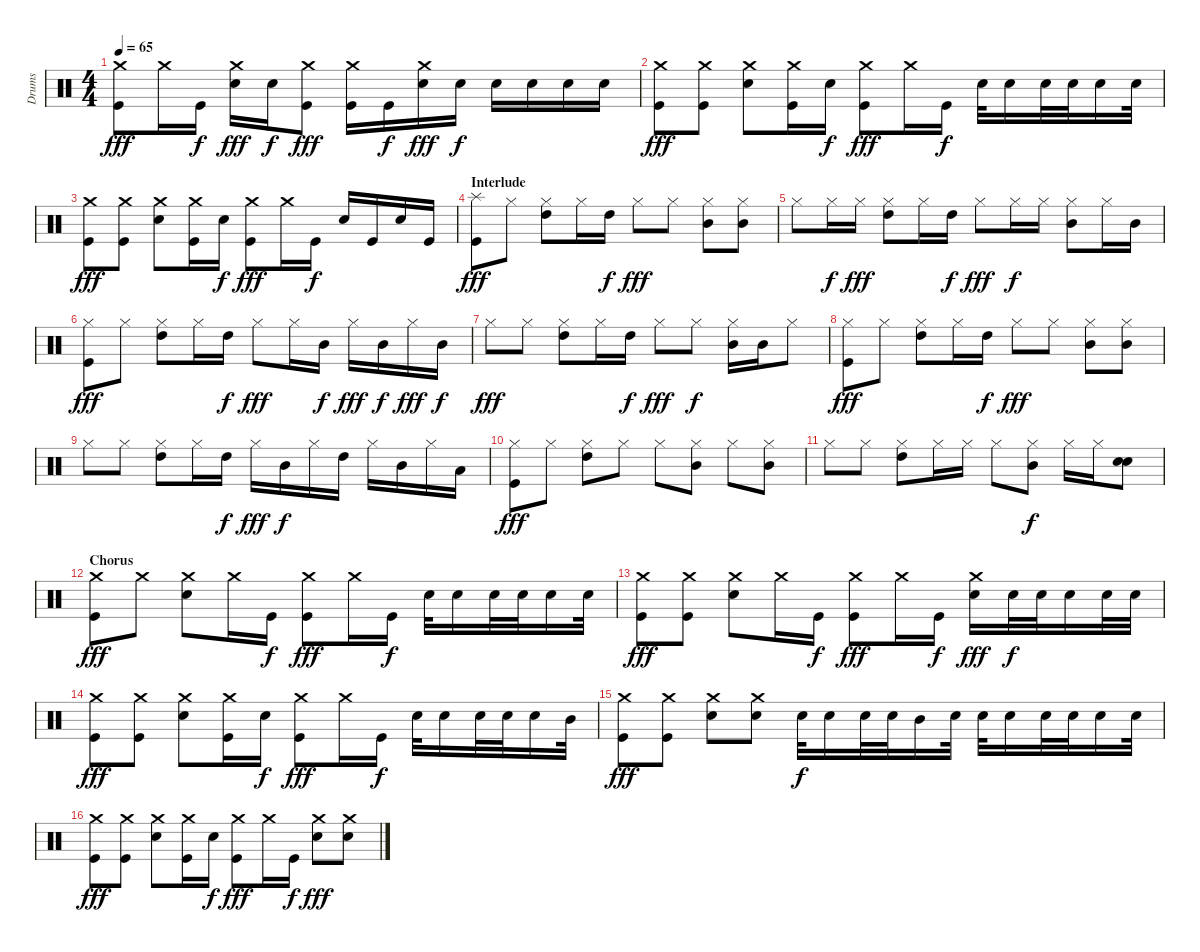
\track ("Drums" "Drums") {instrument percussion}
\staff {score}
\articulation defaults
\ts (4 4)
\tempo 65
\clef neutral
\ks c
("Crash medium (hit)" "Kick (hit)").8{dy fff} "Crash medium (hit)".16 "Kick (hit)".16{dy f} ("Crash medium (hit)" "Electric Snare (hit)").16{dy fff} "Electric Snare (hit)".16{dy f} ("Crash medium (hit)" "Kick (hit)").8{dy fff} ("Crash medium (hit)" "Kick (hit)").16 "Kick (hit)".16{dy f} ("Crash medium (hit)" "Electric Snare (hit)").16{dy fff} "Electric Snare (hit)".16{dy f} "Electric Snare (hit)".16 "Electric Snare (hit)".16 "Electric Snare (hit)".16 "Electric Snare (hit)".16 |
("Crash medium (hit)" "Kick (hit)").8{dy fff} ("Crash medium (hit)" "Kick (hit)").8 ("Crash medium (hit)" "Electric Snare (hit)").8 ("Crash medium (hit)" "Kick (hit)").16 "Electric Snare (hit)".16{dy f} ("Crash medium (hit)" "Kick (hit)").8{dy fff} "Crash medium (hit)".16 "Kick (hit)".16{dy f} "Electric Snare (hit)".32 "Electric Snare (hit)".16 "Electric Snare (hit)".32 "Electric Snare (hit)".32 "Electric Snare (hit)".16 "Electric Snare (hit)".32 |
("Crash medium (hit)" "Kick (hit)").8{dy fff} ("Crash medium (hit)" "Kick (hit)").8 ("Crash medium (hit)" "Electric Snare (hit)").8 ("Crash medium (hit)" "Kick (hit)").16 "Electric Snare (hit)".16{dy f} ("Crash medium (hit)" "Kick (hit)").8{dy fff} "Crash medium (hit)".16 "Kick (hit)".16{dy f} "Electric Snare (hit)".16 "Kick (hit)".16 "Electric Snare (hit)".16 "Kick (hit)".16 |
\section ("" "Interlude")
("Splash (hit)" "Kick (hit)").8{dy fff} "Hi-Hat (closed)".8 ("Hi-Hat (closed)" "High Tom (hit)").8 "Hi-Hat (closed)".16 "High Tom (hit)".16{dy f} "Hi-Hat (closed)".8{dy fff} "Hi-Hat (closed)".8 ("Hi-Hat (closed)" "Mid Tom (hit)").8 ("Hi-Hat (closed)" "Mid Tom (hit)").8 |
"Hi-Hat (closed)".8 "Hi-Hat (closed)".16{dy f} "Hi-Hat (closed)".16{dy fff} ("Hi-Hat (closed)" "High Tom (hit)").8 "Hi-Hat (closed)".16 "High Tom (hit)".16{dy f} "Hi-Hat (closed)".8{dy fff} "Hi-Hat (closed)".16{dy f} "Hi-Hat (closed)".16 ("Hi-Hat (closed)" "Mid Tom (hit)").8 "Hi-Hat (closed)".16 "Mid Tom (hit)".16 |
("Hi-Hat (closed)" "Kick (hit)").8{dy fff} "Hi-Hat (closed)".8 ("Hi-Hat (closed)" "High Tom (hit)").8 "Hi-Hat (closed)".16 "High Tom (hit)".16{dy f} "Hi-Hat (closed)".8{dy fff} "Hi-Hat (closed)".16 "Mid Tom (hit)".16{dy f} "Hi-Hat (closed)".16{dy fff} "Mid Tom (hit)".16{dy f} "Hi-Hat (closed)".16{dy fff} "Mid Tom (hit)".16{dy f} |
"Hi-Hat (closed)".8{dy fff} "Hi-Hat (closed)".8 ("Hi-Hat (closed)" "High Tom (hit)").8 "Hi-Hat (closed)".16 "High Tom (hit)".16{dy f} "Hi-Hat (closed)".8{dy fff} "Hi-Hat (closed)".8{dy f} ("Hi-Hat (closed)" "Mid Tom (hit)").16 "Mid Tom (hit)".16 "Hi-Hat (closed)".8 |
("Hi-Hat (closed)" "Kick (hit)").8{dy fff} "Hi-Hat (closed)".8 ("Hi-Hat (closed)" "High Tom (hit)").8 "Hi-Hat (closed)".16 "High Tom (hit)".16{dy f} "Hi-Hat (closed)".8{dy fff} "Hi-Hat (closed)".8 ("Hi-Hat (closed)" "Mid Tom (hit)").8 ("Hi-Hat (closed)" "Mid Tom (hit)").8 |
"Hi-Hat (closed)".8 "Hi-Hat (closed)".8 ("Hi-Hat (closed)" "High Tom (hit)").8 "Hi-Hat (closed)".16 "High Tom (hit)".16{dy f} "Hi-Hat (closed)".16{dy fff} "Mid Tom (hit)".16{dy f} "Hi-Hat (closed)".16 "High Tom (hit)".16 "Hi-Hat (closed)".16 "Mid Tom (hit)".16 "Hi-Hat (closed)".16 "Low Tom (hit)".16 |
("Hi-Hat (closed)" "Kick (hit)").8{dy fff} "Hi-Hat (closed)".8 ("Hi-Hat (closed)" "High Tom (hit)").8 "Hi-Hat (closed)".8 "Hi-Hat (closed)".8 ("Hi-Hat (closed)" "Mid Tom (hit)").8 "Hi-Hat (closed)".8 ("Hi-Hat (closed)" "Mid Tom (hit)").8 |
"Hi-Hat (closed)".8 "Hi-Hat (closed)".8 ("Hi-Hat (closed)" "High Tom (hit)").8 "Hi-Hat (closed)".16 "Hi-Hat (closed)".16 "Hi-Hat (closed)".8 ("Hi-Hat (closed)" "Mid Tom (hit)").8{dy f} "Hi-Hat (closed)".16 "Hi-Hat (closed)".16 ("Electric Snare (hit)" "Electric Snare (hit)").8 |
\section ("" "Chorus")
("Crash medium (hit)" "Kick (hit)").8{dy fff} "Crash medium (hit)".8 ("Crash medium (hit)" "Electric Snare (hit)").8 "Crash medium (hit)".16 "Kick (hit)".16{dy f} ("Crash medium (hit)" "Kick (hit)").8{dy fff} "Crash medium (hit)".16 "Kick (hit)".16{dy f} "Electric Snare (hit)".32 "Electric Snare (hit)".16 "Electric Snare (hit)".32 "Electric Snare (hit)".32 "Electric Snare (hit)".16 "Electric Snare (hit)".32 |
("Crash medium (hit)" "Kick (hit)").8{dy fff} ("Crash medium (hit)" "Kick (hit)").8 ("Crash medium (hit)" "Electric Snare (hit)").8 "Crash medium (hit)".16 "Kick (hit)".16{dy f} ("Crash medium (hit)" "Kick (hit)").8{dy fff} "Crash medium (hit)".16 "Kick (hit)".16{dy f} ("Crash medium (hit)" "Electric Snare (hit)").16{dy fff} "Electric Snare (hit)".32{dy f} "Electric Snare (hit)".32 "Electric Snare (hit)".16 "Electric Snare (hit)".32 "Electric Snare (hit)".32 |
("Crash medium (hit)" "Kick (hit)").8{dy fff} ("Crash medium (hit)" "Kick (hit)").8 ("Crash medium (hit)" "Electric Snare (hit)").8 ("Crash medium (hit)" "Kick (hit)").16 "Electric Snare (hit)".16{dy f} ("Crash medium (hit)" "Kick (hit)").8{dy fff} "Crash medium (hit)".16 "Kick (hit)".16{dy f} "Electric Snare (hit)".32 "Electric Snare (hit)".16 "Electric Snare (hit)".32 "Electric Snare (hit)".32 "Electric Snare (hit)".16 "Mid Tom (hit)".32 |
("Crash medium (hit)" "Kick (hit)").8{dy fff} ("Crash medium (hit)" "Kick (hit)").8 ("Crash medium (hit)" "Electric Snare (hit)").8 ("Crash medium (hit)" "Electric Snare (hit)").8 "Electric Snare (hit)".32{dy f} "Electric Snare (hit)".16 "Electric Snare (hit)".32 "Electric Snare (hit)".32 "Mid Tom (hit)".16 "Electric Snare (hit)".32 "Electric Snare (hit)".32 "Electric Snare (hit)".16 "Electric Snare (hit)".32 "Electric Snare (hit)".32 "Electric Snare (hit)".16 "Electric Snare (hit)".32 |
("Crash medium (hit)" "Kick (hit)").8{dy fff} ("Crash medium (hit)" "Kick (hit)").8 ("Crash medium (hit)" "Electric Snare (hit)").8 ("Crash medium (hit)" "Kick (hit)").16 "Electric Snare (hit)".16{dy f} ("Crash medium (hit)" "Kick (hit)").8{dy fff} "Crash medium (hit)".16 "Kick (hit)".16{dy f} ("Crash medium (hit)" "Electric Snare (hit)").8{dy fff} ("Crash medium (hit)" "Electric Snare (hit)").8
